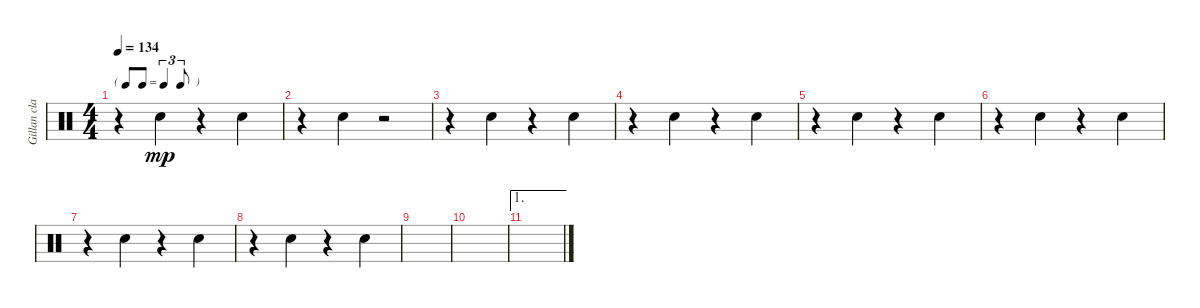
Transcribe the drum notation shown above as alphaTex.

\track ("Gillan claps along" "Gillan cla") {instrument percussion}
\staff {score}
\articulation defaults
\ts (4 4)
\tf triplet8th
\tempo 134
\clef neutral
\ks c
r.4{dy mp} "Hand Clap (hit)".4 r.4 "Hand Clap (hit)".4 |
r.4 "Hand Clap (hit)".4 r.2 |
r.4 "Hand Clap (hit)".4 r.4 "Hand Clap (hit)".4 |
r.4 "Hand Clap (hit)".4 r.4 "Hand Clap (hit)".4 |
r.4 "Hand Clap (hit)".4 r.4 "Hand Clap (hit)".4 |
r.4 "Hand Clap (hit)".4 r.4 "Hand Clap (hit)".4 |
r.4 "Hand Clap (hit)".4 r.4 "Hand Clap (hit)".4 |
r.4 "Hand Clap (hit)".4 r.4 "Hand Clap (hit)".4 |
|
|
\ae 1
